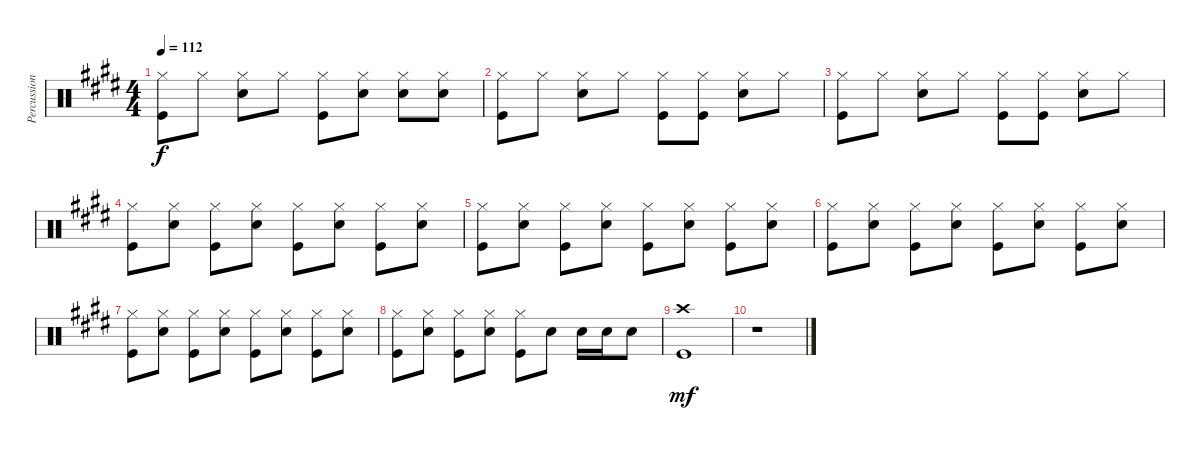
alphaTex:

\track ("Percussion" "Percussion") {instrument percussion}
\staff {score}
\articulation defaults
\ts (4 4)
\tempo 112
\clef neutral
\ks e
("Hi-Hat (closed)" "Kick (hit)").8{dy f} "Hi-Hat (closed)".8 ("Hi-Hat (closed)" "Snare (hit) 2").8 "Hi-Hat (closed)".8 ("Hi-Hat (closed)" "Kick (hit)").8 ("Hi-Hat (closed)" "Snare (hit) 2").8 ("Hi-Hat (closed)" "Snare (hit) 2").8 ("Hi-Hat (closed)" "Snare (hit) 2").8 |
("Hi-Hat (closed)" "Kick (hit)").8 "Hi-Hat (closed)".8 ("Hi-Hat (closed)" "Snare (hit) 2").8 "Hi-Hat (closed)".8 ("Hi-Hat (closed)" "Kick (hit)").8 ("Hi-Hat (closed)" "Kick (hit)").8 ("Hi-Hat (closed)" "Snare (hit) 2").8 "Hi-Hat (closed)".8 |
("Hi-Hat (closed)" "Kick (hit)").8 "Hi-Hat (closed)".8 ("Hi-Hat (closed)" "Snare (hit) 2").8 "Hi-Hat (closed)".8 ("Hi-Hat (closed)" "Kick (hit)").8 ("Hi-Hat (closed)" "Kick (hit)").8 ("Hi-Hat (closed)" "Snare (hit) 2").8 "Hi-Hat (closed)".8 |
("Hi-Hat (closed)" "Kick (hit)").8 ("Hi-Hat (closed)" "Snare (hit) 2").8 ("Hi-Hat (closed)" "Kick (hit)").8 ("Hi-Hat (closed)" "Snare (hit) 2").8 ("Hi-Hat (closed)" "Kick (hit)").8 ("Hi-Hat (closed)" "Snare (hit) 2").8 ("Hi-Hat (closed)" "Kick (hit)").8 ("Hi-Hat (closed)" "Snare (hit) 2").8 |
("Hi-Hat (closed)" "Kick (hit)").8 ("Hi-Hat (closed)" "Snare (hit) 2").8 ("Hi-Hat (closed)" "Kick (hit)").8 ("Hi-Hat (closed)" "Snare (hit) 2").8 ("Hi-Hat (closed)" "Kick (hit)").8 ("Hi-Hat (closed)" "Snare (hit) 2").8 ("Hi-Hat (closed)" "Kick (hit)").8 ("Hi-Hat (closed)" "Snare (hit) 2").8 |
("Hi-Hat (closed)" "Kick (hit)").8 ("Hi-Hat (closed)" "Snare (hit) 2").8 ("Hi-Hat (closed)" "Kick (hit)").8 ("Hi-Hat (closed)" "Snare (hit) 2").8 ("Hi-Hat (closed)" "Kick (hit)").8 ("Hi-Hat (closed)" "Snare (hit) 2").8 ("Hi-Hat (closed)" "Kick (hit)").8 ("Hi-Hat (closed)" "Snare (hit) 2").8 |
("Hi-Hat (closed)" "Kick (hit)").8 ("Hi-Hat (closed)" "Snare (hit) 2").8 ("Hi-Hat (closed)" "Kick (hit)").8 ("Hi-Hat (closed)" "Snare (hit) 2").8 ("Hi-Hat (closed)" "Kick (hit)").8 ("Hi-Hat (closed)" "Snare (hit) 2").8 ("Hi-Hat (closed)" "Kick (hit)").8 ("Hi-Hat (closed)" "Snare (hit) 2").8 |
("Hi-Hat (closed)" "Kick (hit)").8 ("Hi-Hat (closed)" "Snare (hit) 2").8 ("Hi-Hat (closed)" "Kick (hit)").8 ("Hi-Hat (closed)" "Snare (hit) 2").8 ("Hi-Hat (closed)" "Kick (hit)").8 "Snare (hit) 2".8 "Snare (hit) 2".16 "Snare (hit) 2".16 "Snare (hit) 2".8 |
("Crash high (hit)" "Kick (hit)").1{dy mf} |
r.1
